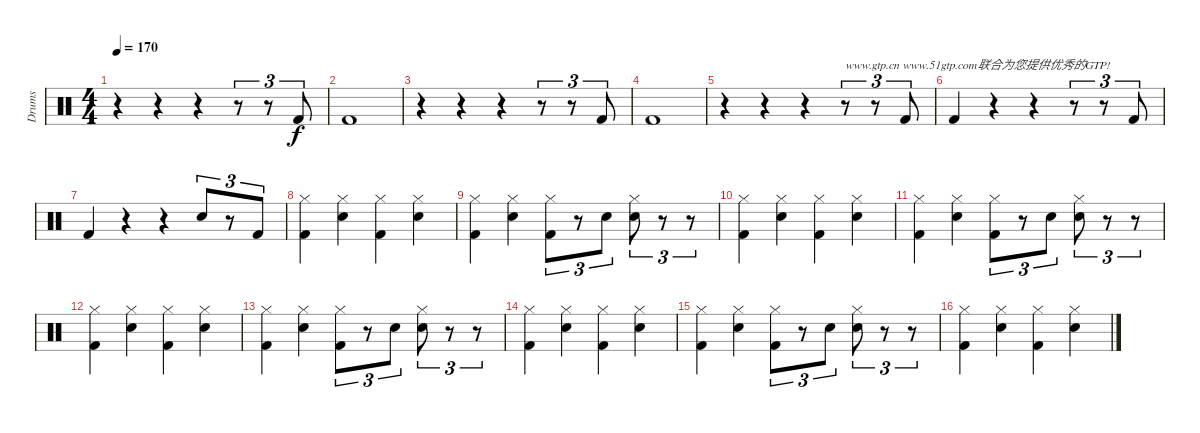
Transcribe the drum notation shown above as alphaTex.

\track ("Drums" "Drums") {instrument percussion}
\staff {score}
\articulation defaults
\ts (4 4)
\tempo 170
\clef neutral
\ks c
r.4{dy f} r.4 r.4 r.8{tu (3 2)} r.8{tu (3 2)} "Kick (hit) 2".8{tu (3 2)} |
"Kick (hit) 2".1 |
r.4 r.4 r.4 r.8{tu (3 2)} r.8{tu (3 2)} "Kick (hit) 2".8{tu (3 2)} |
"Kick (hit) 2".1 |
r.4 r.4 r.4 r.8{tu (3 2) txt "www.gtp.cn www.51gtp.com联合为您提供优秀的GTP!"} r.8{tu (3 2)} "Kick (hit) 2".8{tu (3 2)} |
"Kick (hit) 2".4 r.4 r.4 r.8{tu (3 2)} r.8{tu (3 2)} "Kick (hit) 2".8{tu (3 2)} |
"Kick (hit) 2".4 r.4 r.4 "Snare (hit) 2".8{tu (3 2)} r.8{tu (3 2)} "Kick (hit) 2".8{tu (3 2)} |
("Hi-Hat (closed)" "Kick (hit) 2").4 ("Hi-Hat (closed)" "Snare (hit) 2").4 ("Hi-Hat (closed)" "Kick (hit) 2").4 ("Hi-Hat (closed)" "Snare (hit) 2").4 |
("Hi-Hat (closed)" "Kick (hit) 2").4 ("Hi-Hat (closed)" "Snare (hit) 2").4 ("Hi-Hat (closed)" "Kick (hit) 2").8{tu (3 2)} r.8{tu (3 2)} "Snare (hit) 2".8{tu (3 2)} ("Hi-Hat (closed)" "Snare (hit) 2").8{tu (3 2)} r.8{tu (3 2)} r.8{tu (3 2)} |
("Hi-Hat (closed)" "Kick (hit) 2").4 ("Hi-Hat (closed)" "Snare (hit) 2").4 ("Hi-Hat (closed)" "Kick (hit) 2").4 ("Hi-Hat (closed)" "Snare (hit) 2").4 |
("Hi-Hat (closed)" "Kick (hit) 2").4 ("Hi-Hat (closed)" "Snare (hit) 2").4 ("Hi-Hat (closed)" "Kick (hit) 2").8{tu (3 2)} r.8{tu (3 2)} "Snare (hit) 2".8{tu (3 2)} ("Hi-Hat (closed)" "Snare (hit) 2").8{tu (3 2)} r.8{tu (3 2)} r.8{tu (3 2)} |
("Hi-Hat (closed)" "Kick (hit) 2").4 ("Hi-Hat (closed)" "Snare (hit) 2").4 ("Hi-Hat (closed)" "Kick (hit) 2").4 ("Hi-Hat (closed)" "Snare (hit) 2").4 |
("Hi-Hat (closed)" "Kick (hit) 2").4 ("Hi-Hat (closed)" "Snare (hit) 2").4 ("Hi-Hat (closed)" "Kick (hit) 2").8{tu (3 2)} r.8{tu (3 2)} "Snare (hit) 2".8{tu (3 2)} ("Hi-Hat (closed)" "Snare (hit) 2").8{tu (3 2)} r.8{tu (3 2)} r.8{tu (3 2)} |
("Hi-Hat (closed)" "Kick (hit) 2").4 ("Hi-Hat (closed)" "Snare (hit) 2").4 ("Hi-Hat (closed)" "Kick (hit) 2").4 ("Hi-Hat (closed)" "Snare (hit) 2").4 |
("Hi-Hat (closed)" "Kick (hit) 2").4 ("Hi-Hat (closed)" "Snare (hit) 2").4 ("Hi-Hat (closed)" "Kick (hit) 2").8{tu (3 2)} r.8{tu (3 2)} "Snare (hit) 2".8{tu (3 2)} ("Hi-Hat (closed)" "Snare (hit) 2").8{tu (3 2)} r.8{tu (3 2)} r.8{tu (3 2)} |
("Hi-Hat (closed)" "Kick (hit) 2").4 ("Hi-Hat (closed)" "Snare (hit) 2").4 ("Hi-Hat (closed)" "Kick (hit) 2").4 ("Hi-Hat (closed)" "Snare (hit) 2").4
